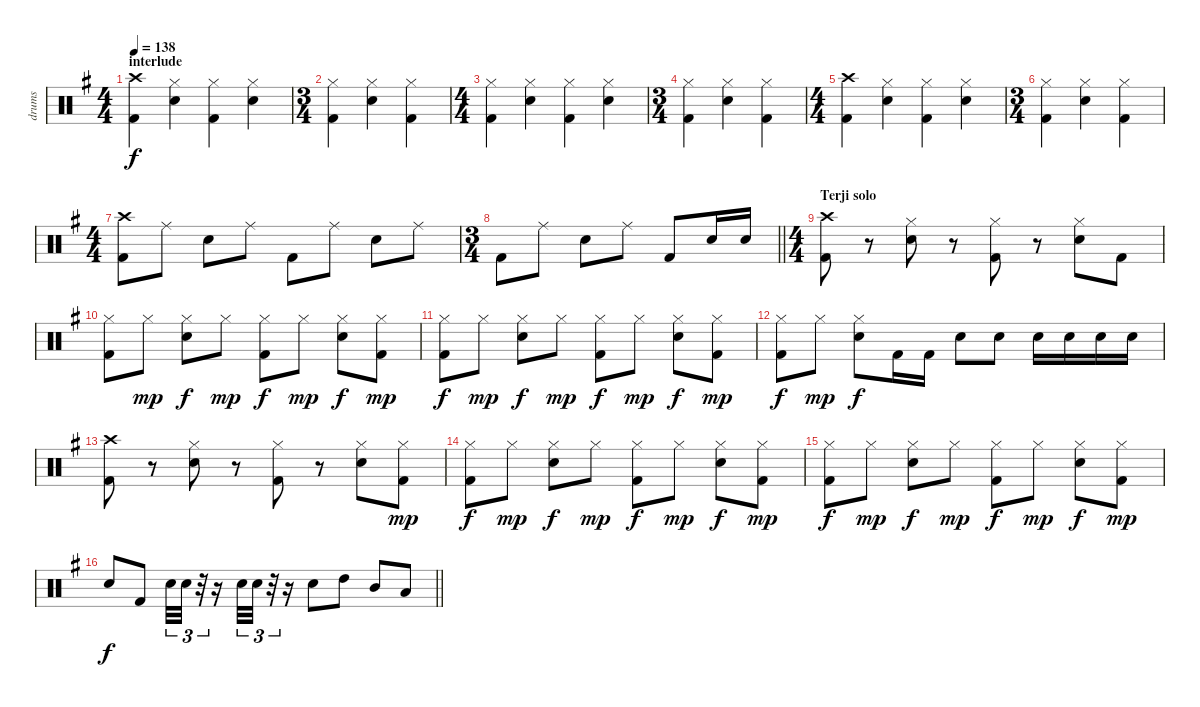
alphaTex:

\track ("drums" "drums") {instrument percussion}
\staff {score}
\articulation defaults
\ts (4 4)
\section ("" "interlude")
\tempo 138
\clef neutral
\ks eminor
("Crash high (hit)" "Kick (hit) 2").4{dy f} ("Hi-Hat (closed)" "Snare (hit) 2").4 ("Hi-Hat (closed)" "Kick (hit) 2").4 ("Hi-Hat (closed)" "Snare (hit) 2").4 |
\ts (3 4)
("Hi-Hat (closed)" "Kick (hit) 2").4 ("Hi-Hat (closed)" "Snare (hit) 2").4 ("Hi-Hat (closed)" "Kick (hit) 2").4 |
\ts (4 4)
("Hi-Hat (closed)" "Kick (hit) 2").4 ("Hi-Hat (closed)" "Snare (hit) 2").4 ("Hi-Hat (closed)" "Kick (hit) 2").4 ("Hi-Hat (closed)" "Snare (hit) 2").4 |
\ts (3 4)
("Hi-Hat (closed)" "Kick (hit) 2").4 ("Hi-Hat (closed)" "Snare (hit) 2").4 ("Hi-Hat (closed)" "Kick (hit) 2").4 |
\ts (4 4)
("Crash high (hit)" "Kick (hit) 2").4 ("Hi-Hat (closed)" "Snare (hit) 2").4 ("Hi-Hat (closed)" "Kick (hit) 2").4 ("Hi-Hat (closed)" "Snare (hit) 2").4 |
\ts (3 4)
("Hi-Hat (closed)" "Kick (hit) 2").4 ("Hi-Hat (closed)" "Snare (hit) 2").4 ("Hi-Hat (closed)" "Kick (hit) 2").4 |
\ts (4 4)
("Crash high (hit)" "Kick (hit) 2").8 "Ride (middle)".8 "Snare (hit) 2".8 "Ride (middle)".8 "Kick (hit) 2".8 "Ride (middle)".8 "Snare (hit) 2".8 "Ride (middle)".8 |
\ts (3 4)
\barLineRight lightlight "Kick (hit) 2".8 "Ride (middle)".8 "Snare (hit) 2".8 "Ride (middle)".8 "Kick (hit) 2".8 "Snare (hit) 2".16 "Snare (hit) 2".16
|
\ts (4 4)
\section ("" "Terji solo")
("Crash high (hit)" "Kick (hit) 2").8 r.8 ("Hi-Hat (closed)" "Snare (hit) 2").8 r.8 ("Hi-Hat (closed)" "Kick (hit) 2").8 r.8 ("Hi-Hat (closed)" "Snare (hit) 2").8 "Kick (hit) 2".8 |
("Hi-Hat (closed)" "Kick (hit) 2").8 "Hi-Hat (closed)".8{dy mp} ("Hi-Hat (closed)" "Snare (hit) 2").8{dy f} "Hi-Hat (closed)".8{dy mp} ("Hi-Hat (closed)" "Kick (hit) 2").8{dy f} "Hi-Hat (closed)".8{dy mp} ("Hi-Hat (closed)" "Snare (hit) 2").8{dy f} ("Hi-Hat (closed)" "Kick (hit) 2").8{dy mp} |
("Hi-Hat (closed)" "Kick (hit) 2").8{dy f} "Hi-Hat (closed)".8{dy mp} ("Hi-Hat (closed)" "Snare (hit) 2").8{dy f} "Hi-Hat (closed)".8{dy mp} ("Hi-Hat (closed)" "Kick (hit) 2").8{dy f} "Hi-Hat (closed)".8{dy mp} ("Hi-Hat (closed)" "Snare (hit) 2").8{dy f} ("Hi-Hat (closed)" "Kick (hit) 2").8{dy mp} |
("Hi-Hat (closed)" "Kick (hit) 2").8{dy f} "Hi-Hat (closed)".8{dy mp} ("Hi-Hat (closed)" "Snare (hit) 2").8{dy f} "Kick (hit) 2".16 "Kick (hit) 2".16 "Snare (hit) 2".8 "Snare (hit) 2".8 "Snare (hit) 2".16 "Snare (hit) 2".16 "Snare (hit) 2".16 "Snare (hit) 2".16 |
("Crash high (hit)" "Kick (hit) 2").8 r.8 ("Hi-Hat (closed)" "Snare (hit) 2").8 r.8 ("Hi-Hat (closed)" "Kick (hit) 2").8 r.8 ("Hi-Hat (closed)" "Snare (hit) 2").8 ("Hi-Hat (closed)" "Kick (hit) 2").8{dy mp} |
("Hi-Hat (closed)" "Kick (hit) 2").8{dy f} "Hi-Hat (closed)".8{dy mp} ("Hi-Hat (closed)" "Snare (hit) 2").8{dy f} "Hi-Hat (closed)".8{dy mp} ("Hi-Hat (closed)" "Kick (hit) 2").8{dy f} "Hi-Hat (closed)".8{dy mp} ("Hi-Hat (closed)" "Snare (hit) 2").8{dy f} ("Hi-Hat (closed)" "Kick (hit) 2").8{dy mp} |
("Hi-Hat (closed)" "Kick (hit) 2").8{dy f} "Hi-Hat (closed)".8{dy mp} ("Hi-Hat (closed)" "Snare (hit) 2").8{dy f} "Hi-Hat (closed)".8{dy mp} ("Hi-Hat (closed)" "Kick (hit) 2").8{dy f} "Hi-Hat (closed)".8{dy mp} ("Hi-Hat (closed)" "Snare (hit) 2").8{dy f} ("Hi-Hat (closed)" "Kick (hit) 2").8{dy mp} |
\barLineRight lightlight "Snare (hit) 2".8{dy f} "Kick (hit) 2".8 "Snare (hit) 2".32{tu (3 2)} "Snare (hit) 2".32{tu (3 2)}
r.32{tu (3 2)} r.16 "Snare (hit) 2".32{tu (3 2)} "Snare (hit) 2".32{tu (3 2)} r.32{tu (3 2)} r.16 "Snare (hit) 2".8 "High Tom (hit)".8 "Mid Tom (hit)".8 "Low Tom (hit)".8
